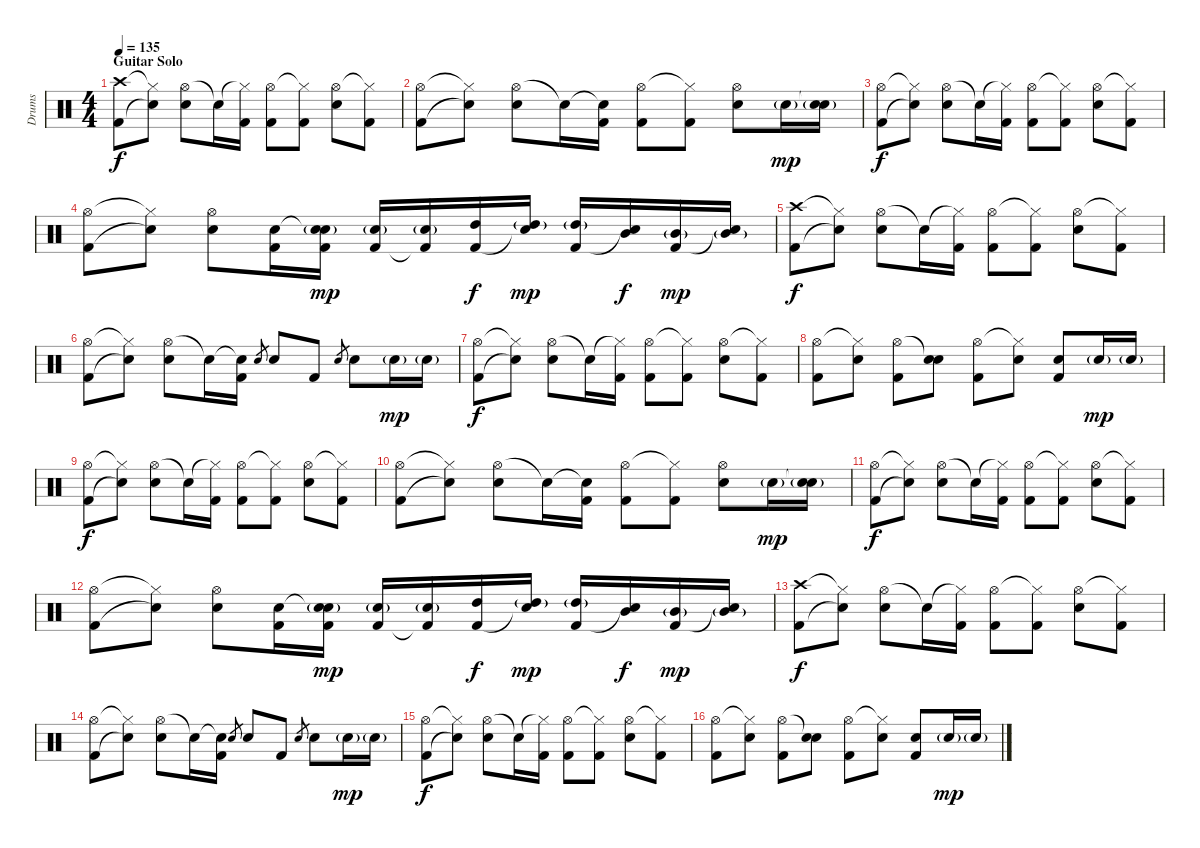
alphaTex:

\track ("Drums" "Drums") {instrument percussion}
\staff {score}
\articulation defaults
\ts (4 4)
\section ("" "Guitar Solo")
\tempo 135
\clef neutral
\ks c
("Crash high (hit)" "Kick (hit) 2").8{dy f} ("Hi-Hat (closed)"{t} "Snare (hit)"{t}).8 ("Hi-Hat (open)" "Electric Snare (hit)").8 "Snare (hit)"{t}.16 ("Hi-Hat (closed)"{t} "Kick (hit) 2").16 ("Hi-Hat (open)" "Kick (hit) 2").8 ("Hi-Hat (closed)"{t} "Kick (hit) 2").8 ("Hi-Hat (open)" "Electric Snare (hit)").8 ("Hi-Hat (closed)"{t} "Kick (hit) 2").8 |
("Hi-Hat (open)" "Kick (hit) 2").8 ("Hi-Hat (closed)"{t} "Snare (hit)"{t}).8 ("Hi-Hat (open)" "Electric Snare (hit)").8 "Snare (hit)"{t}.16 ("Snare (hit)"{t} "Kick (hit) 2").16 ("Hi-Hat (open)" "Kick (hit) 2").8 ("Hi-Hat (closed)"{t} "Kick (hit) 2").8 ("Hi-Hat (open)" "Electric Snare (hit)").8 "Electric Snare (hit)"{g}.16{dy mp} ("Snare (hit)"{t} "Electric Snare (hit)"{g}).16 |
("Hi-Hat (open)" "Kick (hit) 2").8{dy f} ("Hi-Hat (closed)"{t} "Snare (hit)"{t}).8 ("Hi-Hat (open)" "Electric Snare (hit)").8 "Snare (hit)"{t}.16 ("Hi-Hat (closed)"{t} "Kick (hit) 2").16 ("Hi-Hat (open)" "Kick (hit) 2").8 ("Hi-Hat (closed)"{t} "Kick (hit) 2").8 ("Hi-Hat (open)" "Electric Snare (hit)").8 ("Hi-Hat (closed)"{t} "Kick (hit) 2").8 |
("Hi-Hat (open)" "Kick (hit) 2").8 ("Hi-Hat (closed)"{t} "Snare (hit)"{t}).8 ("Hi-Hat (open)" "Electric Snare (hit)").8 ("Electric Snare (hit)" "Kick (hit) 2").16 ("Snare (hit)"{t} "Electric Snare (hit)"{g} "Kick (hit) 2").16{dy mp} ("Electric Snare (hit)"{g} "Kick (hit) 2").16 ("Electric Snare (hit)"{g} "Kick (hit) 2"{t}).16 ("High Tom (hit)" "Kick (hit) 2").16{dy f} ("High Tom (hit)"{g} "Snare (hit)"{t}).16{dy mp} ("High Tom (hit)"{g} "Kick (hit) 2").16 ("Mid Tom (hit)" "Snare (hit)"{t}).16{dy f} ("Mid Tom (hit)"{g} "Kick (hit) 2").16{dy mp} ("Mid Tom (hit)"{g} "Snare (hit)"{t}).16 |
("Crash high (hit)" "Kick (hit) 2").8{dy f} ("Hi-Hat (closed)"{t} "Snare (hit)"{t}).8 ("Hi-Hat (open)" "Electric Snare (hit)").8 "Snare (hit)"{t}.16 ("Hi-Hat (closed)"{t} "Kick (hit) 2").16 ("Hi-Hat (open)" "Kick (hit) 2").8 ("Hi-Hat (closed)"{t} "Kick (hit) 2").8 ("Hi-Hat (open)" "Electric Snare (hit)").8 ("Hi-Hat (closed)"{t} "Kick (hit) 2").8 |
("Hi-Hat (open)" "Kick (hit) 2").8 ("Hi-Hat (closed)"{t} "Snare (hit)"{t}).8 ("Hi-Hat (open)" "Electric Snare (hit)").8 "Snare (hit)"{t}.16 ("Snare (hit)"{t} "Kick (hit) 2").16 "Electric Snare (hit)".8{gr} "Electric Snare (hit)".8 "Kick (hit) 2".8 "Electric Snare (hit)".8{gr} "Electric Snare (hit)".8 "Electric Snare (hit)"{g}.16{dy mp} "Electric Snare (hit)"{g}.16 |
("Hi-Hat (open)" "Kick (hit) 2").8{dy f} ("Hi-Hat (closed)"{t} "Snare (hit)"{t}).8 ("Hi-Hat (open)" "Electric Snare (hit)").8 "Snare (hit)"{t}.16 ("Hi-Hat (closed)"{t} "Kick (hit) 2").16 ("Hi-Hat (open)" "Kick (hit) 2").8 ("Hi-Hat (closed)"{t} "Kick (hit) 2").8 ("Hi-Hat (open)" "Electric Snare (hit)").8 ("Hi-Hat (closed)"{t} "Kick (hit) 2").8 |
("Hi-Hat (open)" "Kick (hit) 2").8 ("Hi-Hat (closed)"{t} "Electric Snare (hit)").8 ("Hi-Hat (open)" "Kick (hit) 2").8 ("Snare (hit)"{t} "Electric Snare (hit)").8 ("Hi-Hat (open)" "Kick (hit) 2").8 ("Hi-Hat (closed)"{t} "Electric Snare (hit)").8 ("Electric Snare (hit)" "Kick (hit) 2").8 "Electric Snare (hit)"{g}.16{dy mp} "Electric Snare (hit)"{g}.16 |
("Hi-Hat (open)" "Kick (hit) 2").8{dy f} ("Hi-Hat (closed)"{t} "Snare (hit)"{t}).8 ("Hi-Hat (open)" "Electric Snare (hit)").8 "Snare (hit)"{t}.16 ("Hi-Hat (closed)"{t} "Kick (hit) 2").16 ("Hi-Hat (open)" "Kick (hit) 2").8 ("Hi-Hat (closed)"{t} "Kick (hit) 2").8 ("Hi-Hat (open)" "Electric Snare (hit)").8 ("Hi-Hat (closed)"{t} "Kick (hit) 2").8 |
("Hi-Hat (open)" "Kick (hit) 2").8 ("Hi-Hat (closed)"{t} "Snare (hit)"{t}).8 ("Hi-Hat (open)" "Electric Snare (hit)").8 "Snare (hit)"{t}.16 ("Snare (hit)"{t} "Kick (hit) 2").16 ("Hi-Hat (open)" "Kick (hit) 2").8 ("Hi-Hat (closed)"{t} "Kick (hit) 2").8 ("Hi-Hat (open)" "Electric Snare (hit)").8 "Electric Snare (hit)"{g}.16{dy mp} ("Snare (hit)"{t} "Electric Snare (hit)"{g}).16 |
("Hi-Hat (open)" "Kick (hit) 2").8{dy f} ("Hi-Hat (closed)"{t} "Snare (hit)"{t}).8 ("Hi-Hat (open)" "Electric Snare (hit)").8 "Snare (hit)"{t}.16 ("Hi-Hat (closed)"{t} "Kick (hit) 2").16 ("Hi-Hat (open)" "Kick (hit) 2").8 ("Hi-Hat (closed)"{t} "Kick (hit) 2").8 ("Hi-Hat (open)" "Electric Snare (hit)").8 ("Hi-Hat (closed)"{t} "Kick (hit) 2").8 |
("Hi-Hat (open)" "Kick (hit) 2").8 ("Hi-Hat (closed)"{t} "Snare (hit)"{t}).8 ("Hi-Hat (open)" "Electric Snare (hit)").8 ("Electric Snare (hit)" "Kick (hit) 2").16 ("Snare (hit)"{t} "Electric Snare (hit)"{g} "Kick (hit) 2").16{dy mp} ("Electric Snare (hit)"{g} "Kick (hit) 2").16 ("Electric Snare (hit)"{g} "Kick (hit) 2"{t}).16 ("High Tom (hit)" "Kick (hit) 2").16{dy f} ("High Tom (hit)"{g} "Snare (hit)"{t}).16{dy mp} ("High Tom (hit)"{g} "Kick (hit) 2").16 ("Mid Tom (hit)" "Snare (hit)"{t}).16{dy f} ("Mid Tom (hit)"{g} "Kick (hit) 2").16{dy mp} ("Mid Tom (hit)"{g} "Snare (hit)"{t}).16 |
("Crash high (hit)" "Kick (hit) 2").8{dy f} ("Hi-Hat (closed)"{t} "Snare (hit)"{t}).8 ("Hi-Hat (open)" "Electric Snare (hit)").8 "Snare (hit)"{t}.16 ("Hi-Hat (closed)"{t} "Kick (hit) 2").16 ("Hi-Hat (open)" "Kick (hit) 2").8 ("Hi-Hat (closed)"{t} "Kick (hit) 2").8 ("Hi-Hat (open)" "Electric Snare (hit)").8 ("Hi-Hat (closed)"{t} "Kick (hit) 2").8 |
("Hi-Hat (open)" "Kick (hit) 2").8 ("Hi-Hat (closed)"{t} "Snare (hit)"{t}).8 ("Hi-Hat (open)" "Electric Snare (hit)").8 "Snare (hit)"{t}.16 ("Snare (hit)"{t} "Kick (hit) 2").16 "Electric Snare (hit)".8{gr} "Electric Snare (hit)".8 "Kick (hit) 2".8 "Electric Snare (hit)".8{gr} "Electric Snare (hit)".8 "Electric Snare (hit)"{g}.16{dy mp} "Electric Snare (hit)"{g}.16 |
("Hi-Hat (open)" "Kick (hit) 2").8{dy f} ("Hi-Hat (closed)"{t} "Snare (hit)"{t}).8 ("Hi-Hat (open)" "Electric Snare (hit)").8 "Snare (hit)"{t}.16 ("Hi-Hat (closed)"{t} "Kick (hit) 2").16 ("Hi-Hat (open)" "Kick (hit) 2").8 ("Hi-Hat (closed)"{t} "Kick (hit) 2").8 ("Hi-Hat (open)" "Electric Snare (hit)").8 ("Hi-Hat (closed)"{t} "Kick (hit) 2").8 |
("Hi-Hat (open)" "Kick (hit) 2").8 ("Hi-Hat (closed)"{t} "Electric Snare (hit)").8 ("Hi-Hat (open)" "Kick (hit) 2").8 ("Snare (hit)"{t} "Electric Snare (hit)").8 ("Hi-Hat (open)" "Kick (hit) 2").8 ("Hi-Hat (closed)"{t} "Electric Snare (hit)").8 ("Electric Snare (hit)" "Kick (hit) 2").8 "Electric Snare (hit)"{g}.16{dy mp} "Electric Snare (hit)"{g}.16
